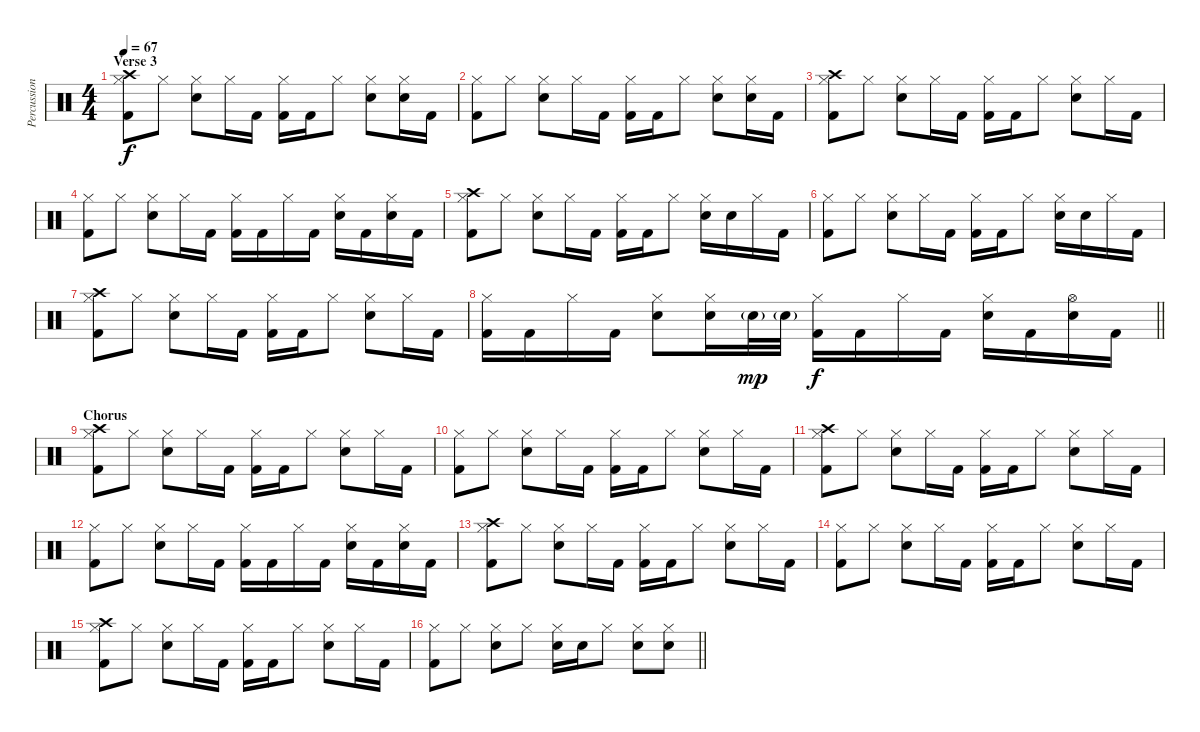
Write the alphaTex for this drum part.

\track ("Percussion" "Percussion") {instrument percussion}
\staff {score}
\articulation defaults
\ts (4 4)
\section ("" "Verse 3")
\tempo 67
\clef neutral
\ks c
("Crash high (hit)" "Hi-Hat (closed)" "Kick (hit) 2").8{dy f} "Hi-Hat (closed)".8 ("Hi-Hat (closed)" "Snare (hit) 2").8 "Hi-Hat (closed)".16 "Kick (hit) 2".16 ("Hi-Hat (closed)" "Kick (hit) 2").16 "Kick (hit) 2".16 "Hi-Hat (closed)".8 ("Hi-Hat (closed)" "Snare (hit) 2").8 ("Hi-Hat (closed)" "Snare (hit) 2").16 "Kick (hit) 2".16 |
("Hi-Hat (closed)" "Kick (hit) 2").8 "Hi-Hat (closed)".8 ("Hi-Hat (closed)" "Snare (hit) 2").8 "Hi-Hat (closed)".16 "Kick (hit) 2".16 ("Hi-Hat (closed)" "Kick (hit) 2").16 "Kick (hit) 2".16 "Hi-Hat (closed)".8 ("Hi-Hat (closed)" "Snare (hit) 2").8 ("Hi-Hat (closed)" "Snare (hit) 2").16 "Kick (hit) 2".16 |
("Crash high (hit)" "Hi-Hat (closed)" "Kick (hit) 2").8 "Hi-Hat (closed)".8 ("Hi-Hat (closed)" "Snare (hit) 2").8 "Hi-Hat (closed)".16 "Kick (hit) 2".16 ("Hi-Hat (closed)" "Kick (hit) 2").16 "Kick (hit) 2".16 "Hi-Hat (closed)".8 ("Hi-Hat (closed)" "Snare (hit) 2").8 "Hi-Hat (closed)".16 "Kick (hit) 2".16 |
("Hi-Hat (closed)" "Kick (hit) 2").8 "Hi-Hat (closed)".8 ("Hi-Hat (closed)" "Snare (hit) 2").8 "Hi-Hat (closed)".16 "Kick (hit) 2".16 ("Hi-Hat (closed)" "Kick (hit) 2").16 "Kick (hit) 2".16 "Hi-Hat (closed)".16 "Kick (hit) 2".16 ("Hi-Hat (closed)" "Snare (hit) 2").16 "Kick (hit) 2".16 ("Hi-Hat (closed)" "Snare (hit) 2").16 "Kick (hit) 2".16 |
("Crash high (hit)" "Hi-Hat (closed)" "Kick (hit) 2").8 "Hi-Hat (closed)".8 ("Hi-Hat (closed)" "Snare (hit) 2").8 "Hi-Hat (closed)".16 "Kick (hit) 2".16 ("Hi-Hat (closed)" "Kick (hit) 2").16 "Kick (hit) 2".16 "Hi-Hat (closed)".8 ("Hi-Hat (closed)" "Snare (hit) 2").16 "Snare (hit) 2".16 "Hi-Hat (closed)".16 "Kick (hit) 2".16 |
("Hi-Hat (closed)" "Kick (hit) 2").8 "Hi-Hat (closed)".8 ("Hi-Hat (closed)" "Snare (hit) 2").8 "Hi-Hat (closed)".16 "Kick (hit) 2".16 ("Hi-Hat (closed)" "Kick (hit) 2").16 "Kick (hit) 2".16 "Hi-Hat (closed)".8 ("Hi-Hat (closed)" "Snare (hit) 2").16 "Snare (hit) 2".16 "Hi-Hat (closed)".16 "Kick (hit) 2".16 |
("Crash high (hit)" "Hi-Hat (closed)" "Kick (hit) 2").8 "Hi-Hat (closed)".8 ("Hi-Hat (closed)" "Snare (hit) 2").8 "Hi-Hat (closed)".16 "Kick (hit) 2".16 ("Hi-Hat (closed)" "Kick (hit) 2").16 "Kick (hit) 2".16 "Hi-Hat (closed)".8 ("Hi-Hat (closed)" "Snare (hit) 2").8 "Hi-Hat (closed)".16 "Kick (hit) 2".16 |
\barLineRight lightlight
("Hi-Hat (closed)" "Kick (hit) 2").16 "Kick (hit) 2".16 "Hi-Hat (closed)".16 "Kick (hit) 2".16 ("Hi-Hat (closed)" "Snare (hit) 2").8 ("Hi-Hat (closed)" "Snare (hit) 2").16 "Snare (hit) 2"{g}.32{dy mp} "Snare (hit) 2"{g}.32 ("Hi-Hat (closed)" "Kick (hit) 2").16{dy f} "Kick (hit) 2".16 "Hi-Hat (closed)".16 "Kick (hit) 2".16 ("Hi-Hat (closed)" "Snare (hit) 2").16 "Kick (hit) 2".16 ("Hi-Hat (open)" "Snare (hit) 2").16 "Kick (hit) 2".16 |
\section ("" "Chorus")
("Crash high (hit)" "Hi-Hat (closed)" "Kick (hit) 2").8 "Hi-Hat (closed)".8 ("Hi-Hat (closed)" "Snare (hit) 2").8 "Hi-Hat (closed)".16 "Kick (hit) 2".16 ("Hi-Hat (closed)" "Kick (hit) 2").16 "Kick (hit) 2".16 "Hi-Hat (closed)".8 ("Hi-Hat (closed)" "Snare (hit) 2").8 "Hi-Hat (closed)".16 "Kick (hit) 2".16 |
("Hi-Hat (closed)" "Kick (hit) 2").8 "Hi-Hat (closed)".8 ("Hi-Hat (closed)" "Snare (hit) 2").8 "Hi-Hat (closed)".16 "Kick (hit) 2".16 ("Hi-Hat (closed)" "Kick (hit) 2").16 "Kick (hit) 2".16 "Hi-Hat (closed)".8 ("Hi-Hat (closed)" "Snare (hit) 2").8 "Hi-Hat (closed)".16 "Kick (hit) 2".16 |
("Crash high (hit)" "Hi-Hat (closed)" "Kick (hit) 2").8 "Hi-Hat (closed)".8 ("Hi-Hat (closed)" "Snare (hit) 2").8 "Hi-Hat (closed)".16 "Kick (hit) 2".16 ("Hi-Hat (closed)" "Kick (hit) 2").16 "Kick (hit) 2".16 "Hi-Hat (closed)".8 ("Hi-Hat (closed)" "Snare (hit) 2").8 "Hi-Hat (closed)".16 "Kick (hit) 2".16 |
("Hi-Hat (closed)" "Kick (hit) 2").8 "Hi-Hat (closed)".8 ("Hi-Hat (closed)" "Snare (hit) 2").8 "Hi-Hat (closed)".16 "Kick (hit) 2".16 ("Hi-Hat (closed)" "Kick (hit) 2").16 "Kick (hit) 2".16 "Hi-Hat (closed)".16 "Kick (hit) 2".16 ("Hi-Hat (closed)" "Snare (hit) 2").16 "Kick (hit) 2".16 ("Hi-Hat (closed)" "Snare (hit) 2").16 "Kick (hit) 2".16 |
("Crash high (hit)" "Hi-Hat (closed)" "Kick (hit) 2").8 "Hi-Hat (closed)".8 ("Hi-Hat (closed)" "Snare (hit) 2").8 "Hi-Hat (closed)".16 "Kick (hit) 2".16 ("Hi-Hat (closed)" "Kick (hit) 2").16 "Kick (hit) 2".16 "Hi-Hat (closed)".8 ("Hi-Hat (closed)" "Snare (hit) 2").8 "Hi-Hat (closed)".16 "Kick (hit) 2".16 |
("Hi-Hat (closed)" "Kick (hit) 2").8 "Hi-Hat (closed)".8 ("Hi-Hat (closed)" "Snare (hit) 2").8 "Hi-Hat (closed)".16 "Kick (hit) 2".16 ("Hi-Hat (closed)" "Kick (hit) 2").16 "Kick (hit) 2".16 "Hi-Hat (closed)".8 ("Hi-Hat (closed)" "Snare (hit) 2").8 "Hi-Hat (closed)".16 "Kick (hit) 2".16 |
("Crash high (hit)" "Hi-Hat (closed)" "Kick (hit) 2").8 "Hi-Hat (closed)".8 ("Hi-Hat (closed)" "Snare (hit) 2").8 "Hi-Hat (closed)".16 "Kick (hit) 2".16 ("Hi-Hat (closed)" "Kick (hit) 2").16 "Kick (hit) 2".16 "Hi-Hat (closed)".8 ("Hi-Hat (closed)" "Snare (hit) 2").8 "Hi-Hat (closed)".16 "Kick (hit) 2".16 |
\barLineRight lightlight
("Hi-Hat (closed)" "Kick (hit) 2").8 "Hi-Hat (closed)".8 ("Hi-Hat (closed)" "Snare (hit) 2").8 "Hi-Hat (closed)".8 ("Hi-Hat (closed)" "Snare (hit) 2").16 "Snare (hit) 2".16 "Hi-Hat (closed)".8 ("Hi-Hat (closed)" "Snare (hit) 2").8 ("Hi-Hat (closed)" "Snare (hit) 2").8
